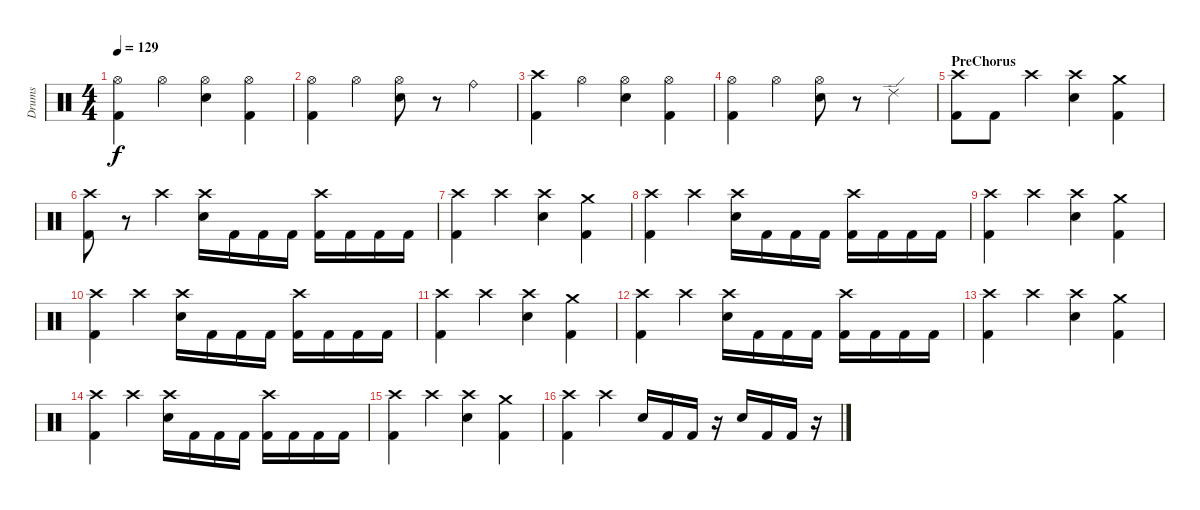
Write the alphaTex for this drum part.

\track ("Drums" "Drums") {instrument percussion}
\staff {score}
\articulation defaults
\ts (4 4)
\tempo 129
\clef neutral
\ks c
("Hi-Hat (open)" "Kick (hit) 2").4{dy f} "Hi-Hat (open)".4 ("Hi-Hat (open)" "Snare (hit) 2").4 ("Hi-Hat (open)" "Kick (hit) 2").4 |
("Hi-Hat (open)" "Kick (hit) 2").4 "Hi-Hat (open)".4 ("Hi-Hat (open)" "Snare (hit) 2").8 r.8 "Ride (bell)".4 |
("Crash high (hit)" "Kick (hit) 2").4 "Hi-Hat (open)".4 ("Hi-Hat (open)" "Snare (hit) 2").4 ("Hi-Hat (open)" "Kick (hit) 2").4 |
("Hi-Hat (open)" "Kick (hit) 2").4 "Hi-Hat (open)".4 ("Hi-Hat (open)" "Snare (hit) 2").8 r.8 "Ride (edge) 2".4 |
\section ("" "PreChorus")
("Crash high (hit)" "Kick (hit) 2").8 "Kick (hit) 2".8 "Crash high (hit)".4 ("Crash high (hit)" "Snare (hit) 2").4 ("Crash medium (hit)" "Kick (hit) 2").4 |
("Crash high (hit)" "Kick (hit) 2").8 r.8 "Crash high (hit)".4 ("Crash high (hit)" "Snare (hit) 2").16 "Kick (hit) 2".16 "Kick (hit) 2".16 "Kick (hit) 2".16 ("Crash high (hit)" "Kick (hit) 2").16 "Kick (hit) 2".16 "Kick (hit) 2".16 "Kick (hit) 2".16 |
("Crash high (hit)" "Kick (hit) 2").4 "Crash high (hit)".4 ("Crash high (hit)" "Snare (hit) 2").4 ("Crash medium (hit)" "Kick (hit) 2").4 |
("Crash high (hit)" "Kick (hit) 2").4 "Crash high (hit)".4 ("Crash high (hit)" "Snare (hit) 2").16 "Kick (hit) 2".16 "Kick (hit) 2".16 "Kick (hit) 2".16 ("Crash high (hit)" "Kick (hit) 2").16 "Kick (hit) 2".16 "Kick (hit) 2".16 "Kick (hit) 2".16 |
("Crash high (hit)" "Kick (hit) 2").4 "Crash high (hit)".4 ("Crash high (hit)" "Snare (hit) 2").4 ("Crash medium (hit)" "Kick (hit) 2").4 |
("Crash high (hit)" "Kick (hit) 2").4 "Crash high (hit)".4 ("Crash high (hit)" "Snare (hit) 2").16 "Kick (hit) 2".16 "Kick (hit) 2".16 "Kick (hit) 2".16 ("Crash high (hit)" "Kick (hit) 2").16 "Kick (hit) 2".16 "Kick (hit) 2".16 "Kick (hit) 2".16 |
("Crash high (hit)" "Kick (hit) 2").4 "Crash high (hit)".4 ("Crash high (hit)" "Snare (hit) 2").4 ("Crash medium (hit)" "Kick (hit) 2").4 |
("Crash high (hit)" "Kick (hit) 2").4 "Crash high (hit)".4 ("Crash high (hit)" "Snare (hit) 2").16 "Kick (hit) 2".16 "Kick (hit) 2".16 "Kick (hit) 2".16 ("Crash high (hit)" "Kick (hit) 2").16 "Kick (hit) 2".16 "Kick (hit) 2".16 "Kick (hit) 2".16 |
("Crash high (hit)" "Kick (hit) 2").4 "Crash high (hit)".4 ("Crash high (hit)" "Snare (hit) 2").4 ("Crash medium (hit)" "Kick (hit) 2").4 |
("Crash high (hit)" "Kick (hit) 2").4 "Crash high (hit)".4 ("Crash high (hit)" "Snare (hit) 2").16 "Kick (hit) 2".16 "Kick (hit) 2".16 "Kick (hit) 2".16 ("Crash high (hit)" "Kick (hit) 2").16 "Kick (hit) 2".16 "Kick (hit) 2".16 "Kick (hit) 2".16 |
("Crash high (hit)" "Kick (hit) 2").4 "Crash high (hit)".4 ("Crash high (hit)" "Snare (hit) 2").4 ("Crash medium (hit)" "Kick (hit) 2").4 |
("Crash high (hit)" "Kick (hit) 2").4 "Crash high (hit)".4 "Snare (hit) 2".16 "Kick (hit) 2".16 "Kick (hit) 2".16 r.16 "Snare (hit) 2".16 "Kick (hit) 2".16 "Kick (hit) 2".16 r.16
